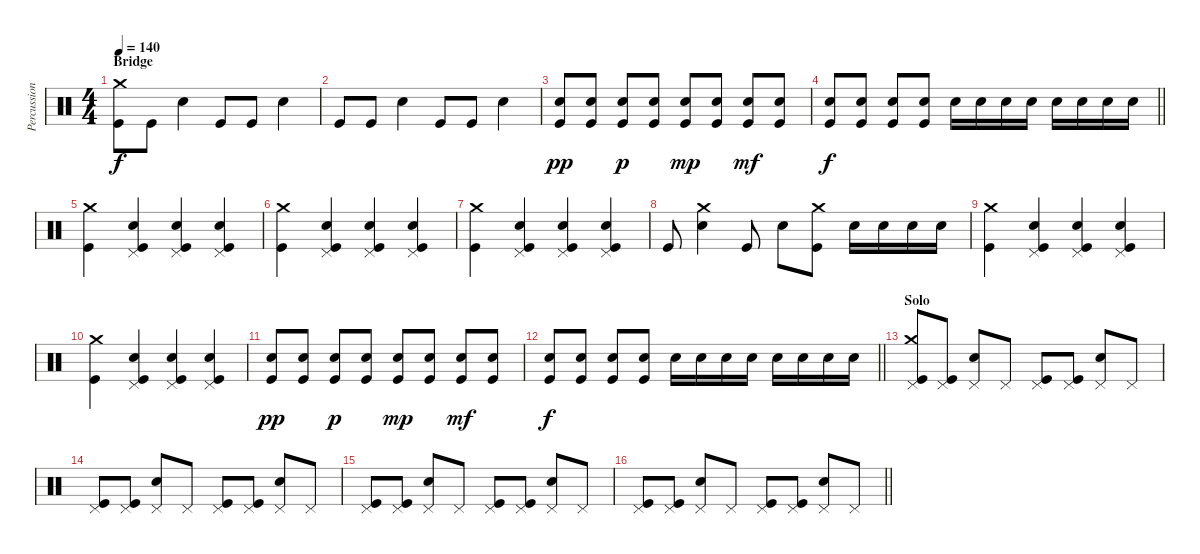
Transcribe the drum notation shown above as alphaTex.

\track ("Percussion" "Percussion") {instrument percussion}
\staff {score}
\articulation defaults
\ts (4 4)
\section ("" "Bridge")
\tempo 140
\clef neutral
\ks c
("Kick (hit)" "Crash medium (hit)").8{dy f} "Kick (hit)".8 "Electric Snare (hit)".4 "Kick (hit)".8 "Kick (hit)".8 "Electric Snare (hit)".4 |
"Kick (hit)".8 "Kick (hit)".8 "Electric Snare (hit)".4 "Kick (hit)".8 "Kick (hit)".8 "Electric Snare (hit)".4 |
("Electric Snare (hit)" "Kick (hit)").8{dy pp} ("Electric Snare (hit)" "Kick (hit)").8 ("Electric Snare (hit)" "Kick (hit)").8{dy p} ("Electric Snare (hit)" "Kick (hit)").8 ("Electric Snare (hit)" "Kick (hit)").8{dy mp} ("Electric Snare (hit)" "Kick (hit)").8 ("Electric Snare (hit)" "Kick (hit)").8{dy mf} ("Electric Snare (hit)" "Kick (hit)").8 |
\barLineRight lightlight
("Electric Snare (hit)" "Kick (hit)").8{dy f} ("Electric Snare (hit)" "Kick (hit)").8 ("Electric Snare (hit)" "Kick (hit)").8 ("Electric Snare (hit)" "Kick (hit)").8 "Electric Snare (hit)".16 "Electric Snare (hit)".16 "Electric Snare (hit)".16 "Electric Snare (hit)".16 "Electric Snare (hit)".16 "Electric Snare (hit)".16 "Electric Snare (hit)".16 "Electric Snare (hit)".16 |
("Kick (hit)" "Crash medium (hit)").4 ("Pedal Hi-Hat (hit)" "Electric Snare (hit)" "Kick (hit)").4 ("Pedal Hi-Hat (hit)" "Electric Snare (hit)" "Kick (hit)").4 ("Pedal Hi-Hat (hit)" "Electric Snare (hit)" "Kick (hit)").4 |
("Kick (hit)" "Crash medium (hit)").4 ("Pedal Hi-Hat (hit)" "Electric Snare (hit)" "Kick (hit)").4 ("Pedal Hi-Hat (hit)" "Electric Snare (hit)" "Kick (hit)").4 ("Pedal Hi-Hat (hit)" "Electric Snare (hit)" "Kick (hit)").4 |
("Kick (hit)" "Crash medium (hit)").4 ("Pedal Hi-Hat (hit)" "Electric Snare (hit)" "Kick (hit)").4 ("Pedal Hi-Hat (hit)" "Electric Snare (hit)" "Kick (hit)").4 ("Pedal Hi-Hat (hit)" "Electric Snare (hit)" "Kick (hit)").4 |
"Kick (hit)".8 ("Electric Snare (hit)" "Crash medium (hit)").4 "Kick (hit)".8 "Electric Snare (hit)".8 ("Kick (hit)" "Crash medium (hit)").8 "Electric Snare (hit)".16 "Electric Snare (hit)".16 "Electric Snare (hit)".16 "Electric Snare (hit)".16 |
("Kick (hit)" "Crash medium (hit)").4 ("Pedal Hi-Hat (hit)" "Electric Snare (hit)" "Kick (hit)").4 ("Pedal Hi-Hat (hit)" "Electric Snare (hit)" "Kick (hit)").4 ("Pedal Hi-Hat (hit)" "Electric Snare (hit)" "Kick (hit)").4 |
("Kick (hit)" "Crash medium (hit)").4 ("Pedal Hi-Hat (hit)" "Electric Snare (hit)" "Kick (hit)").4 ("Pedal Hi-Hat (hit)" "Electric Snare (hit)" "Kick (hit)").4 ("Pedal Hi-Hat (hit)" "Electric Snare (hit)" "Kick (hit)").4 |
("Electric Snare (hit)" "Kick (hit)").8{dy pp} ("Electric Snare (hit)" "Kick (hit)").8 ("Electric Snare (hit)" "Kick (hit)").8{dy p} ("Electric Snare (hit)" "Kick (hit)").8 ("Electric Snare (hit)" "Kick (hit)").8{dy mp} ("Electric Snare (hit)" "Kick (hit)").8 ("Electric Snare (hit)" "Kick (hit)").8{dy mf} ("Electric Snare (hit)" "Kick (hit)").8 |
\barLineRight lightlight
("Electric Snare (hit)" "Kick (hit)").8{dy f} ("Electric Snare (hit)" "Kick (hit)").8 ("Electric Snare (hit)" "Kick (hit)").8 ("Electric Snare (hit)" "Kick (hit)").8 "Electric Snare (hit)".16 "Electric Snare (hit)".16 "Electric Snare (hit)".16 "Electric Snare (hit)".16 "Electric Snare (hit)".16 "Electric Snare (hit)".16 "Electric Snare (hit)".16 "Electric Snare (hit)".16 |
\section ("" "Solo")
("Pedal Hi-Hat (hit)" "Kick (hit)" "Crash medium (hit)").8 ("Pedal Hi-Hat (hit)" "Kick (hit)").8 ("Pedal Hi-Hat (hit)" "Electric Snare (hit)").8 "Pedal Hi-Hat (hit)".8 ("Pedal Hi-Hat (hit)" "Kick (hit)").8 ("Pedal Hi-Hat (hit)" "Kick (hit)").8 ("Pedal Hi-Hat (hit)" "Electric Snare (hit)").8 "Pedal Hi-Hat (hit)".8 |
("Pedal Hi-Hat (hit)" "Kick (hit)").8 ("Pedal Hi-Hat (hit)" "Kick (hit)").8 ("Pedal Hi-Hat (hit)" "Electric Snare (hit)").8 "Pedal Hi-Hat (hit)".8 ("Pedal Hi-Hat (hit)" "Kick (hit)").8 ("Pedal Hi-Hat (hit)" "Kick (hit)").8 ("Pedal Hi-Hat (hit)" "Electric Snare (hit)").8 "Pedal Hi-Hat (hit)".8 |
("Pedal Hi-Hat (hit)" "Kick (hit)").8 ("Pedal Hi-Hat (hit)" "Kick (hit)").8 ("Pedal Hi-Hat (hit)" "Electric Snare (hit)").8 "Pedal Hi-Hat (hit)".8 ("Pedal Hi-Hat (hit)" "Kick (hit)").8 ("Pedal Hi-Hat (hit)" "Kick (hit)").8 ("Pedal Hi-Hat (hit)" "Electric Snare (hit)").8 "Pedal Hi-Hat (hit)".8 |
\barLineRight lightlight
("Pedal Hi-Hat (hit)" "Kick (hit)").8 ("Pedal Hi-Hat (hit)" "Kick (hit)").8 ("Pedal Hi-Hat (hit)" "Electric Snare (hit)").8 "Pedal Hi-Hat (hit)".8 ("Pedal Hi-Hat (hit)" "Kick (hit)").8 ("Pedal Hi-Hat (hit)" "Kick (hit)").8 ("Pedal Hi-Hat (hit)" "Electric Snare (hit)").8 "Pedal Hi-Hat (hit)".8
